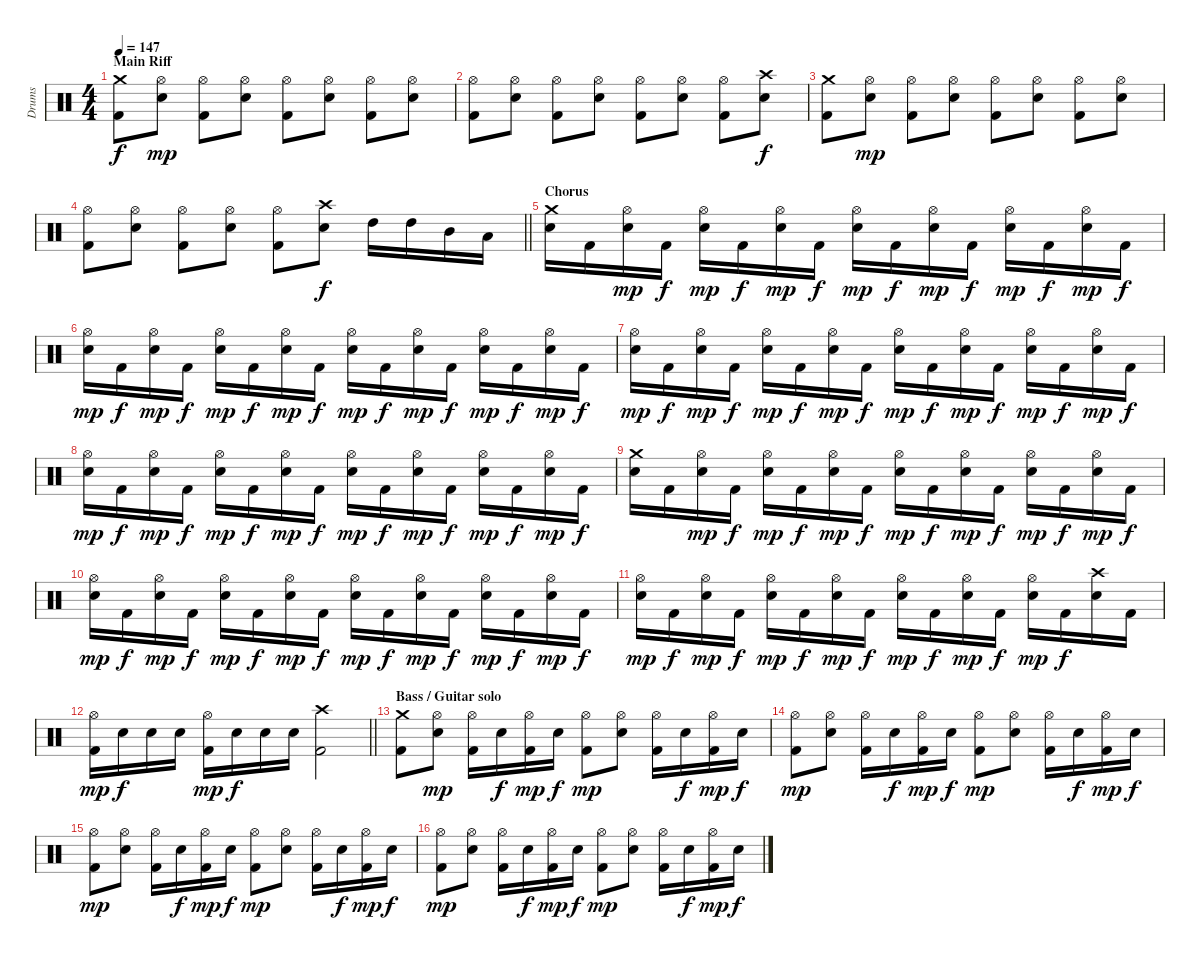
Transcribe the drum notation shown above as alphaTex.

\track ("Drums" "Drums") {instrument percussion}
\staff {score}
\articulation defaults
\ts (4 4)
\section ("" "Main Riff")
\tempo 147
\clef neutral
\ks c
("Crash medium (hit)" "Kick (hit) 2").8{dy f} ("Hi-Hat (open)" "Snare (hit) 2").8{dy mp} ("Hi-Hat (open)" "Kick (hit) 2").8 ("Hi-Hat (open)" "Snare (hit) 2").8 ("Hi-Hat (open)" "Kick (hit) 2").8 ("Hi-Hat (open)" "Snare (hit) 2").8 ("Hi-Hat (open)" "Kick (hit) 2").8 ("Hi-Hat (open)" "Snare (hit) 2").8 |
("Hi-Hat (open)" "Kick (hit) 2").8 ("Hi-Hat (open)" "Snare (hit) 2").8 ("Hi-Hat (open)" "Kick (hit) 2").8 ("Hi-Hat (open)" "Snare (hit) 2").8 ("Hi-Hat (open)" "Kick (hit) 2").8 ("Hi-Hat (open)" "Snare (hit) 2").8 ("Hi-Hat (open)" "Kick (hit) 2").8 ("Crash high (hit)" "Snare (hit) 2").8{dy f} |
("Crash medium (hit)" "Kick (hit) 2").8 ("Hi-Hat (open)" "Snare (hit) 2").8{dy mp} ("Hi-Hat (open)" "Kick (hit) 2").8 ("Hi-Hat (open)" "Snare (hit) 2").8 ("Hi-Hat (open)" "Kick (hit) 2").8 ("Hi-Hat (open)" "Snare (hit) 2").8 ("Hi-Hat (open)" "Kick (hit) 2").8 ("Hi-Hat (open)" "Snare (hit) 2").8 |
\barLineRight lightlight
("Hi-Hat (open)" "Kick (hit) 2").8 ("Hi-Hat (open)" "Snare (hit) 2").8 ("Hi-Hat (open)" "Kick (hit) 2").8 ("Hi-Hat (open)" "Snare (hit) 2").8 ("Hi-Hat (open)" "Kick (hit) 2").8 ("Crash high (hit)" "Snare (hit) 2").8{dy f} "High Tom (hit)".16 "High Tom (hit)".16 "Mid Tom (hit)".16 "Low Tom (hit)".16 |
\section ("" "Chorus")
("Crash medium (hit)" "Snare (hit) 2").16 "Kick (hit) 2".16 ("Hi-Hat (open)" "Snare (hit) 2").16{dy mp} "Kick (hit) 2".16{dy f} ("Hi-Hat (open)" "Snare (hit) 2").16{dy mp} "Kick (hit) 2".16{dy f} ("Hi-Hat (open)" "Snare (hit) 2").16{dy mp} "Kick (hit) 2".16{dy f} ("Hi-Hat (open)" "Snare (hit) 2").16{dy mp} "Kick (hit) 2".16{dy f} ("Hi-Hat (open)" "Snare (hit) 2").16{dy mp} "Kick (hit) 2".16{dy f} ("Hi-Hat (open)" "Snare (hit) 2").16{dy mp} "Kick (hit) 2".16{dy f} ("Hi-Hat (open)" "Snare (hit) 2").16{dy mp} "Kick (hit) 2".16{dy f} |
("Hi-Hat (open)" "Snare (hit) 2").16{dy mp} "Kick (hit) 2".16{dy f} ("Hi-Hat (open)" "Snare (hit) 2").16{dy mp} "Kick (hit) 2".16{dy f} ("Hi-Hat (open)" "Snare (hit) 2").16{dy mp} "Kick (hit) 2".16{dy f} ("Hi-Hat (open)" "Snare (hit) 2").16{dy mp} "Kick (hit) 2".16{dy f} ("Hi-Hat (open)" "Snare (hit) 2").16{dy mp} "Kick (hit) 2".16{dy f} ("Hi-Hat (open)" "Snare (hit) 2").16{dy mp} "Kick (hit) 2".16{dy f} ("Hi-Hat (open)" "Snare (hit) 2").16{dy mp} "Kick (hit) 2".16{dy f} ("Hi-Hat (open)" "Snare (hit) 2").16{dy mp} "Kick (hit) 2".16{dy f} |
("Hi-Hat (open)" "Snare (hit) 2").16{dy mp} "Kick (hit) 2".16{dy f} ("Hi-Hat (open)" "Snare (hit) 2").16{dy mp} "Kick (hit) 2".16{dy f} ("Hi-Hat (open)" "Snare (hit) 2").16{dy mp} "Kick (hit) 2".16{dy f} ("Hi-Hat (open)" "Snare (hit) 2").16{dy mp} "Kick (hit) 2".16{dy f} ("Hi-Hat (open)" "Snare (hit) 2").16{dy mp} "Kick (hit) 2".16{dy f} ("Hi-Hat (open)" "Snare (hit) 2").16{dy mp} "Kick (hit) 2".16{dy f} ("Hi-Hat (open)" "Snare (hit) 2").16{dy mp} "Kick (hit) 2".16{dy f} ("Hi-Hat (open)" "Snare (hit) 2").16{dy mp} "Kick (hit) 2".16{dy f} |
("Hi-Hat (open)" "Snare (hit) 2").16{dy mp} "Kick (hit) 2".16{dy f} ("Hi-Hat (open)" "Snare (hit) 2").16{dy mp} "Kick (hit) 2".16{dy f} ("Hi-Hat (open)" "Snare (hit) 2").16{dy mp} "Kick (hit) 2".16{dy f} ("Hi-Hat (open)" "Snare (hit) 2").16{dy mp} "Kick (hit) 2".16{dy f} ("Hi-Hat (open)" "Snare (hit) 2").16{dy mp} "Kick (hit) 2".16{dy f} ("Hi-Hat (open)" "Snare (hit) 2").16{dy mp} "Kick (hit) 2".16{dy f} ("Hi-Hat (open)" "Snare (hit) 2").16{dy mp} "Kick (hit) 2".16{dy f} ("Hi-Hat (open)" "Snare (hit) 2").16{dy mp} "Kick (hit) 2".16{dy f} |
("Crash medium (hit)" "Snare (hit) 2").16 "Kick (hit) 2".16 ("Hi-Hat (open)" "Snare (hit) 2").16{dy mp} "Kick (hit) 2".16{dy f} ("Hi-Hat (open)" "Snare (hit) 2").16{dy mp} "Kick (hit) 2".16{dy f} ("Hi-Hat (open)" "Snare (hit) 2").16{dy mp} "Kick (hit) 2".16{dy f} ("Hi-Hat (open)" "Snare (hit) 2").16{dy mp} "Kick (hit) 2".16{dy f} ("Hi-Hat (open)" "Snare (hit) 2").16{dy mp} "Kick (hit) 2".16{dy f} ("Hi-Hat (open)" "Snare (hit) 2").16{dy mp} "Kick (hit) 2".16{dy f} ("Hi-Hat (open)" "Snare (hit) 2").16{dy mp} "Kick (hit) 2".16{dy f} |
("Hi-Hat (open)" "Snare (hit) 2").16{dy mp} "Kick (hit) 2".16{dy f} ("Hi-Hat (open)" "Snare (hit) 2").16{dy mp} "Kick (hit) 2".16{dy f} ("Hi-Hat (open)" "Snare (hit) 2").16{dy mp} "Kick (hit) 2".16{dy f} ("Hi-Hat (open)" "Snare (hit) 2").16{dy mp} "Kick (hit) 2".16{dy f} ("Hi-Hat (open)" "Snare (hit) 2").16{dy mp} "Kick (hit) 2".16{dy f} ("Hi-Hat (open)" "Snare (hit) 2").16{dy mp} "Kick (hit) 2".16{dy f} ("Hi-Hat (open)" "Snare (hit) 2").16{dy mp} "Kick (hit) 2".16{dy f} ("Hi-Hat (open)" "Snare (hit) 2").16{dy mp} "Kick (hit) 2".16{dy f} |
("Hi-Hat (open)" "Snare (hit) 2").16{dy mp} "Kick (hit) 2".16{dy f} ("Hi-Hat (open)" "Snare (hit) 2").16{dy mp} "Kick (hit) 2".16{dy f} ("Hi-Hat (open)" "Snare (hit) 2").16{dy mp} "Kick (hit) 2".16{dy f} ("Hi-Hat (open)" "Snare (hit) 2").16{dy mp} "Kick (hit) 2".16{dy f} ("Hi-Hat (open)" "Snare (hit) 2").16{dy mp} "Kick (hit) 2".16{dy f} ("Hi-Hat (open)" "Snare (hit) 2").16{dy mp} "Kick (hit) 2".16{dy f} ("Hi-Hat (open)" "Snare (hit) 2").16{dy mp} "Kick (hit) 2".16{dy f} ("Crash high (hit)" "Snare (hit) 2").16 "Kick (hit) 2".16 |
\barLineRight lightlight
("Hi-Hat (open)" "Kick (hit) 2").16{dy mp} "Snare (hit) 2".16{dy f} "Snare (hit) 2".16 "Snare (hit) 2".16 ("Hi-Hat (open)" "Kick (hit) 2").16{dy mp} "Snare (hit) 2".16{dy f} "Snare (hit) 2".16 "Snare (hit) 2".16 ("Crash high (hit)" "Kick (hit) 2").2 |
\section ("" "Bass / Guitar solo")
("Crash medium (hit)" "Kick (hit) 2").8 ("Hi-Hat (open)" "Snare (hit) 2").8{dy mp} ("Hi-Hat (open)" "Kick (hit) 2").16 "Snare (hit) 2".16{dy f} ("Hi-Hat (open)" "Kick (hit) 2").16{dy mp} "Snare (hit) 2".16{dy f} ("Hi-Hat (open)" "Kick (hit) 2").8{dy mp} ("Hi-Hat (open)" "Snare (hit) 2").8 ("Hi-Hat (open)" "Kick (hit) 2").16 "Snare (hit) 2".16{dy f} ("Hi-Hat (open)" "Kick (hit) 2").16{dy mp} "Snare (hit) 2".16{dy f} |
("Hi-Hat (open)" "Kick (hit) 2").8{dy mp} ("Hi-Hat (open)" "Snare (hit) 2").8 ("Hi-Hat (open)" "Kick (hit) 2").16 "Snare (hit) 2".16{dy f} ("Hi-Hat (open)" "Kick (hit) 2").16{dy mp} "Snare (hit) 2".16{dy f} ("Hi-Hat (open)" "Kick (hit) 2").8{dy mp} ("Hi-Hat (open)" "Snare (hit) 2").8 ("Hi-Hat (open)" "Kick (hit) 2").16 "Snare (hit) 2".16{dy f} ("Hi-Hat (open)" "Kick (hit) 2").16{dy mp} "Snare (hit) 2".16{dy f} |
("Hi-Hat (open)" "Kick (hit) 2").8{dy mp} ("Hi-Hat (open)" "Snare (hit) 2").8 ("Hi-Hat (open)" "Kick (hit) 2").16 "Snare (hit) 2".16{dy f} ("Hi-Hat (open)" "Kick (hit) 2").16{dy mp} "Snare (hit) 2".16{dy f} ("Hi-Hat (open)" "Kick (hit) 2").8{dy mp} ("Hi-Hat (open)" "Snare (hit) 2").8 ("Hi-Hat (open)" "Kick (hit) 2").16 "Snare (hit) 2".16{dy f} ("Hi-Hat (open)" "Kick (hit) 2").16{dy mp} "Snare (hit) 2".16{dy f} |
("Hi-Hat (open)" "Kick (hit) 2").8{dy mp} ("Hi-Hat (open)" "Snare (hit) 2").8 ("Hi-Hat (open)" "Kick (hit) 2").16 "Snare (hit) 2".16{dy f} ("Hi-Hat (open)" "Kick (hit) 2").16{dy mp} "Snare (hit) 2".16{dy f} ("Hi-Hat (open)" "Kick (hit) 2").8{dy mp} ("Hi-Hat (open)" "Snare (hit) 2").8 ("Hi-Hat (open)" "Kick (hit) 2").16 "Snare (hit) 2".16{dy f} ("Hi-Hat (open)" "Kick (hit) 2").16{dy mp} "Snare (hit) 2".16{dy f}
